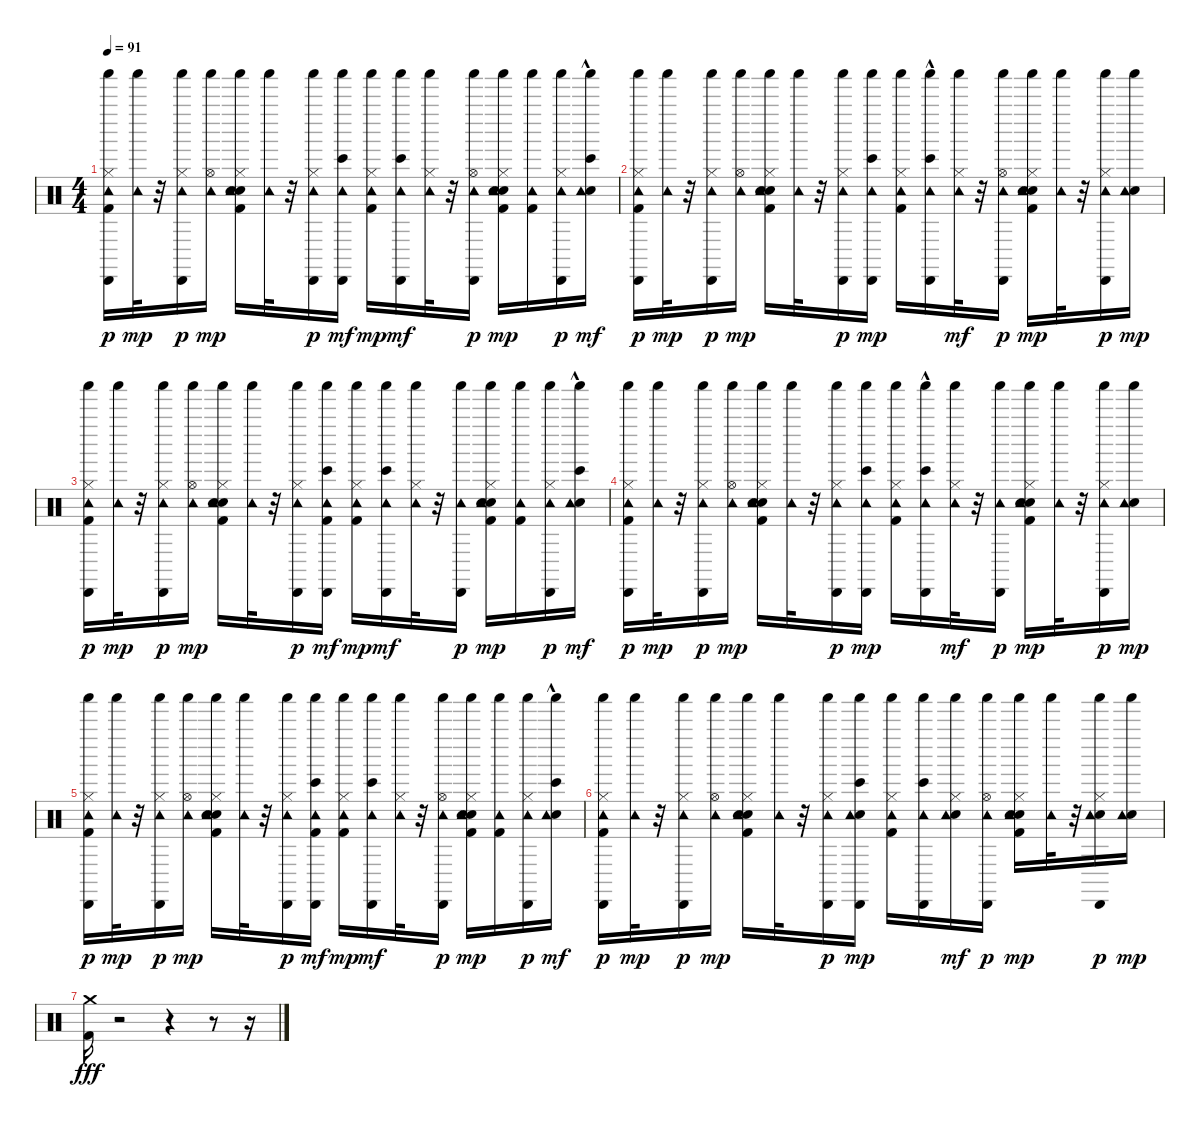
\track "" {instrument percussion}
\staff {score}
\articulation defaults
\ts (4 4)
\tempo 91
\clef neutral
\ks c
("Kick (hit) 2" "Hi-Hat (closed)" "Tambourine (hit)" "Shaker (hit)" "Cabasa (hit)").16{dy p} ("Tambourine (hit)" "Shaker (hit)").32{dy mp} r.32 ("Hi-Hat (closed)" "Tambourine (hit)" "Shaker (hit)" "Cabasa (hit)").16{dy p} ("Hi-Hat (open)" "Tambourine (hit)" "Shaker (hit)").16{dy mp} ("Kick (hit) 2" "Electric Snare (hit)" "Hi-Hat (closed)" "Hand Clap (hit)" "Tambourine (hit)" "Shaker (hit)").16 ("Tambourine (hit)" "Shaker (hit)").32 r.32 ("Hi-Hat (closed)" "Tambourine (hit)" "Shaker (hit)" "Cabasa (hit)").16{dy p} ("Tambourine (hit)" "Shaker (hit)" "Cabasa (hit)" "Bongo High (hit)").16{dy mf} ("Kick (hit) 2" "Hi-Hat (closed)" "Tambourine (hit)" "Shaker (hit)").16{dy mp} ("Tambourine (hit)" "Shaker (hit)" "Cabasa (hit)" "Bongo High (hit)").16{dy mf} ("Hi-Hat (closed)" "Tambourine (hit)" "Shaker (hit)").32 r.32 ("Hi-Hat (open)" "Tambourine (hit)" "Shaker (hit)" "Cabasa (hit)").16{dy p} ("Kick (hit) 2" "Electric Snare (hit)" "Hi-Hat (closed)" "Hand Clap (hit)" "Tambourine (hit)" "Shaker (hit)").16{dy mp} ("Kick (hit) 2" "Tambourine (hit)" "Shaker (hit)").16 ("Hi-Hat (closed)" "Tambourine (hit)" "Shaker (hit)" "Cabasa (hit)").16{dy p} ("Electric Snare (hit)" "Tambourine (hit)" "Shaker (hit)" "Bongo High (hit)"{hac}).16{dy mf} |
("Kick (hit) 2" "Hi-Hat (closed)" "Tambourine (hit)" "Shaker (hit)" "Cabasa (hit)").16{dy p} ("Tambourine (hit)" "Shaker (hit)").32{dy mp} r.32 ("Hi-Hat (closed)" "Tambourine (hit)" "Shaker (hit)" "Cabasa (hit)").16{dy p} ("Hi-Hat (open)" "Tambourine (hit)" "Shaker (hit)").16{dy mp} ("Kick (hit) 2" "Electric Snare (hit)" "Hi-Hat (closed)" "Hand Clap (hit)" "Tambourine (hit)" "Shaker (hit)").16 ("Tambourine (hit)" "Shaker (hit)").32 r.32 ("Hi-Hat (closed)" "Tambourine (hit)" "Shaker (hit)" "Cabasa (hit)").16{dy p} ("Tambourine (hit)" "Shaker (hit)" "Cabasa (hit)" "Bongo High (hit)").16{dy mp} ("Kick (hit) 2" "Hi-Hat (closed)" "Tambourine (hit)" "Shaker (hit)").16 ("Tambourine (hit)" "Shaker (hit)" "Cabasa (hit)" "Bongo High (hit)"{hac}).16 ("Hi-Hat (closed)" "Tambourine (hit)" "Shaker (hit)").32{dy mf} r.32 ("Hi-Hat (open)" "Tambourine (hit)" "Shaker (hit)" "Cabasa (hit)").16{dy p} ("Kick (hit) 2" "Electric Snare (hit)" "Hi-Hat (closed)" "Hand Clap (hit)" "Tambourine (hit)" "Shaker (hit)").16{dy mp} ("Tambourine (hit)" "Shaker (hit)").32 r.32 ("Hi-Hat (closed)" "Tambourine (hit)" "Shaker (hit)" "Cabasa (hit)").16{dy p} ("Electric Snare (hit)" "Tambourine (hit)" "Shaker (hit)").16{dy mp} |
("Kick (hit) 2" "Hi-Hat (closed)" "Tambourine (hit)" "Shaker (hit)" "Cabasa (hit)").16{dy p} ("Tambourine (hit)" "Shaker (hit)").32{dy mp} r.32 ("Hi-Hat (closed)" "Tambourine (hit)" "Shaker (hit)" "Cabasa (hit)").16{dy p} ("Hi-Hat (open)" "Tambourine (hit)" "Shaker (hit)").16{dy mp} ("Kick (hit) 2" "Electric Snare (hit)" "Hi-Hat (closed)" "Hand Clap (hit)" "Tambourine (hit)" "Shaker (hit)").16 ("Tambourine (hit)" "Shaker (hit)").32 r.32 ("Hi-Hat (closed)" "Tambourine (hit)" "Shaker (hit)" "Cabasa (hit)").16{dy p} ("Kick (hit) 2" "Tambourine (hit)" "Shaker (hit)" "Cabasa (hit)" "Bongo High (hit)").16{dy mf} ("Kick (hit) 2" "Hi-Hat (closed)" "Tambourine (hit)" "Shaker (hit)").16{dy mp} ("Tambourine (hit)" "Shaker (hit)" "Cabasa (hit)" "Bongo High (hit)").16{dy mf} ("Hi-Hat (closed)" "Tambourine (hit)" "Shaker (hit)").32 r.32 ("Tambourine (hit)" "Shaker (hit)" "Cabasa (hit)").16{dy p} ("Kick (hit) 2" "Electric Snare (hit)" "Hi-Hat (closed)" "Hand Clap (hit)" "Tambourine (hit)" "Shaker (hit)").16{dy mp} ("Kick (hit) 2" "Tambourine (hit)" "Shaker (hit)").16 ("Hi-Hat (closed)" "Tambourine (hit)" "Shaker (hit)" "Cabasa (hit)").16{dy p} ("Electric Snare (hit)" "Tambourine (hit)" "Shaker (hit)" "Bongo High (hit)"{hac}).16{dy mf} |
("Kick (hit) 2" "Hi-Hat (closed)" "Tambourine (hit)" "Shaker (hit)" "Cabasa (hit)").16{dy p} ("Tambourine (hit)" "Shaker (hit)").32{dy mp} r.32 ("Hi-Hat (closed)" "Tambourine (hit)" "Shaker (hit)" "Cabasa (hit)").16{dy p} ("Hi-Hat (open)" "Tambourine (hit)" "Shaker (hit)").16{dy mp} ("Kick (hit) 2" "Electric Snare (hit)" "Hi-Hat (closed)" "Hand Clap (hit)" "Tambourine (hit)" "Shaker (hit)").16 ("Tambourine (hit)" "Shaker (hit)").32 r.32 ("Hi-Hat (closed)" "Tambourine (hit)" "Shaker (hit)" "Cabasa (hit)").16{dy p} ("Tambourine (hit)" "Shaker (hit)" "Cabasa (hit)" "Bongo High (hit)").16{dy mp} ("Kick (hit) 2" "Hi-Hat (closed)" "Tambourine (hit)" "Shaker (hit)").16 ("Tambourine (hit)" "Shaker (hit)" "Cabasa (hit)" "Bongo High (hit)"{hac}).16 ("Hi-Hat (closed)" "Tambourine (hit)" "Shaker (hit)").32{dy mf} r.32 ("Tambourine (hit)" "Shaker (hit)" "Cabasa (hit)").16{dy p} ("Kick (hit) 2" "Electric Snare (hit)" "Hi-Hat (closed)" "Hand Clap (hit)" "Tambourine (hit)" "Shaker (hit)").16{dy mp} ("Tambourine (hit)" "Shaker (hit)").32 r.32 ("Hi-Hat (closed)" "Tambourine (hit)" "Shaker (hit)" "Cabasa (hit)").16{dy p} ("Electric Snare (hit)" "Tambourine (hit)" "Shaker (hit)").16{dy mp} |
("Kick (hit) 2" "Hi-Hat (closed)" "Tambourine (hit)" "Shaker (hit)" "Cabasa (hit)").16{dy p} ("Tambourine (hit)" "Shaker (hit)").32{dy mp} r.32 ("Hi-Hat (closed)" "Tambourine (hit)" "Shaker (hit)" "Cabasa (hit)").16{dy p} ("Hi-Hat (open)" "Tambourine (hit)" "Shaker (hit)").16{dy mp} ("Kick (hit) 2" "Electric Snare (hit)" "Hi-Hat (closed)" "Hand Clap (hit)" "Tambourine (hit)" "Shaker (hit)").16 ("Tambourine (hit)" "Shaker (hit)").32 r.32 ("Hi-Hat (closed)" "Tambourine (hit)" "Shaker (hit)" "Cabasa (hit)").16{dy p} ("Kick (hit) 2" "Tambourine (hit)" "Shaker (hit)" "Cabasa (hit)" "Bongo High (hit)").16{dy mf} ("Kick (hit) 2" "Hi-Hat (closed)" "Tambourine (hit)" "Shaker (hit)").16{dy mp} ("Tambourine (hit)" "Shaker (hit)" "Cabasa (hit)" "Bongo High (hit)").16{dy mf} ("Hi-Hat (closed)" "Tambourine (hit)" "Shaker (hit)").32 r.32 ("Hi-Hat (open)" "Tambourine (hit)" "Shaker (hit)" "Cabasa (hit)").16{dy p} ("Kick (hit) 2" "Electric Snare (hit)" "Hi-Hat (closed)" "Hand Clap (hit)" "Tambourine (hit)" "Shaker (hit)").16{dy mp} ("Kick (hit) 2" "Tambourine (hit)" "Shaker (hit)").16 ("Hi-Hat (closed)" "Tambourine (hit)" "Shaker (hit)" "Cabasa (hit)").16{dy p} ("Electric Snare (hit)" "Tambourine (hit)" "Shaker (hit)" "Bongo High (hit)"{hac}).16{dy mf} |
("Kick (hit) 2" "Hi-Hat (closed)" "Tambourine (hit)" "Shaker (hit)" "Cabasa (hit)").16{dy p} ("Tambourine (hit)" "Shaker (hit)").32{dy mp} r.32 ("Hi-Hat (closed)" "Tambourine (hit)" "Shaker (hit)" "Cabasa (hit)").16{dy p} ("Hi-Hat (open)" "Tambourine (hit)" "Shaker (hit)").16{dy mp} ("Kick (hit) 2" "Electric Snare (hit)" "Hi-Hat (closed)" "Hand Clap (hit)" "Tambourine (hit)" "Shaker (hit)").16 ("Tambourine (hit)" "Shaker (hit)").32 r.32 ("Hi-Hat (closed)" "Tambourine (hit)" "Shaker (hit)" "Cabasa (hit)").16{dy p} ("Electric Snare (hit)" "Tambourine (hit)" "Shaker (hit)" "Cabasa (hit)" "Bongo High (hit)").16{dy mp} ("Kick (hit) 2" "Hi-Hat (closed)" "Tambourine (hit)" "Shaker (hit)").16 ("Tambourine (hit)" "Shaker (hit)" "Cabasa (hit)" "Bongo High (hit)").16 ("Electric Snare (hit)" "Hi-Hat (closed)" "Tambourine (hit)" "Shaker (hit)").16{dy mf} ("Hi-Hat (open)" "Tambourine (hit)" "Shaker (hit)" "Cabasa (hit)").16{dy p} ("Kick (hit) 2" "Electric Snare (hit)" "Hi-Hat (closed)" "Hand Clap (hit)" "Tambourine (hit)" "Shaker (hit)").16{dy mp} ("Tambourine (hit)" "Shaker (hit)").32 r.32 ("Electric Snare (hit)" "Hi-Hat (closed)" "Tambourine (hit)" "Shaker (hit)" "Cabasa (hit)").16{dy p} ("Electric Snare (hit)" "Tambourine (hit)" "Shaker (hit)").16{dy mp} |
("Crash medium (hit)" "Kick (hit) 2").16{dy fff} r.2 r.4 r.8 r.16
